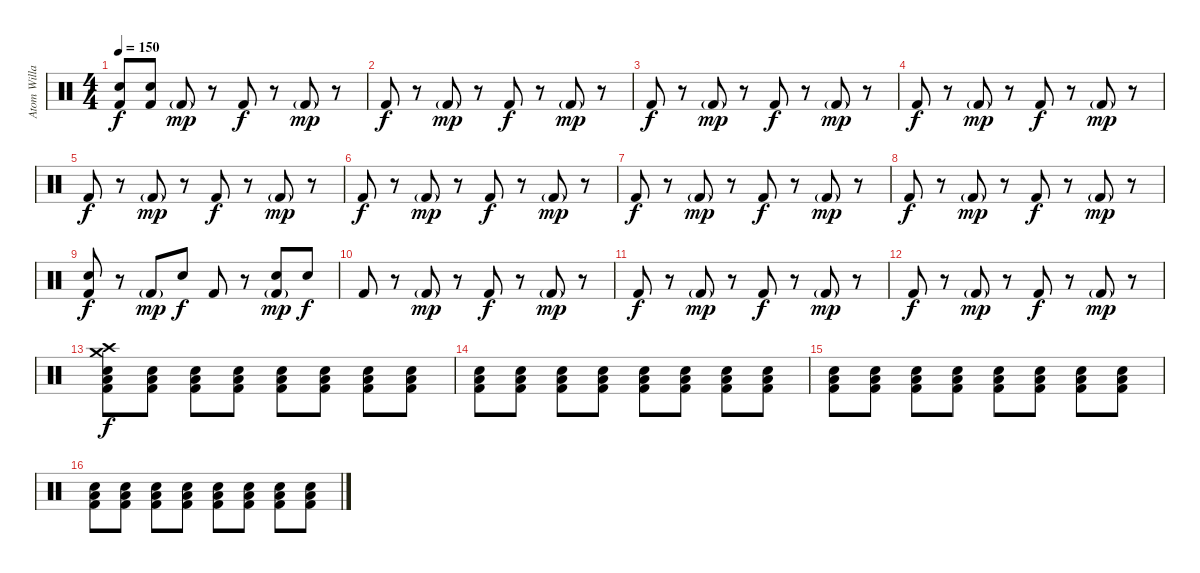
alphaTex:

\track ("Atom Willard - Drums" "Atom Willa") {instrument percussion}
\staff {score}
\articulation defaults
\ts (4 4)
\tempo 150
\clef neutral
\ks c
("Electric Snare (hit)" "Kick (hit) 2").8{dy f} ("Electric Snare (hit)" "Kick (hit) 2").8 "Kick (hit) 2"{g}.8{dy mp} r.8 "Kick (hit) 2".8{dy f} r.8 "Kick (hit) 2"{g}.8{dy mp} r.8 |
"Kick (hit) 2".8{dy f} r.8 "Kick (hit) 2"{g}.8{dy mp} r.8 "Kick (hit) 2".8{dy f} r.8 "Kick (hit) 2"{g}.8{dy mp} r.8 |
"Kick (hit) 2".8{dy f} r.8 "Kick (hit) 2"{g}.8{dy mp} r.8 "Kick (hit) 2".8{dy f} r.8 "Kick (hit) 2"{g}.8{dy mp} r.8 |
"Kick (hit) 2".8{dy f} r.8 "Kick (hit) 2"{g}.8{dy mp} r.8 "Kick (hit) 2".8{dy f} r.8 "Kick (hit) 2"{g}.8{dy mp} r.8 |
"Kick (hit) 2".8{dy f} r.8 "Kick (hit) 2"{g}.8{dy mp} r.8 "Kick (hit) 2".8{dy f} r.8 "Kick (hit) 2"{g}.8{dy mp} r.8 |
"Kick (hit) 2".8{dy f} r.8 "Kick (hit) 2"{g}.8{dy mp} r.8 "Kick (hit) 2".8{dy f} r.8 "Kick (hit) 2"{g}.8{dy mp} r.8 |
"Kick (hit) 2".8{dy f} r.8 "Kick (hit) 2"{g}.8{dy mp} r.8 "Kick (hit) 2".8{dy f} r.8 "Kick (hit) 2"{g}.8{dy mp} r.8 |
"Kick (hit) 2".8{dy f} r.8 "Kick (hit) 2"{g}.8{dy mp} r.8 "Kick (hit) 2".8{dy f} r.8 "Kick (hit) 2"{g}.8{dy mp} r.8 |
("Electric Snare (hit)" "Kick (hit) 2").8{dy f} r.8 "Kick (hit) 2"{g}.8{dy mp} "Electric Snare (hit)".8{dy f} "Kick (hit) 2".8 r.8 ("Electric Snare (hit)" "Kick (hit) 2"{g}).8{dy mp} "Electric Snare (hit)".8{dy f} |
"Kick (hit) 2".8 r.8 "Kick (hit) 2"{g}.8{dy mp} r.8 "Kick (hit) 2".8{dy f} r.8 "Kick (hit) 2"{g}.8{dy mp} r.8 |
"Kick (hit) 2".8{dy f} r.8 "Kick (hit) 2"{g}.8{dy mp} r.8 "Kick (hit) 2".8{dy f} r.8 "Kick (hit) 2"{g}.8{dy mp} r.8 |
"Kick (hit) 2".8{dy f} r.8 "Kick (hit) 2"{g}.8{dy mp} r.8 "Kick (hit) 2".8{dy f} r.8 "Kick (hit) 2"{g}.8{dy mp} r.8 |
("Crash medium (hit)" "Crash high (hit)" "Low Tom (hit)" "Electric Snare (hit)" "Kick (hit) 2").8{dy f} ("Low Tom (hit)" "Electric Snare (hit)" "Kick (hit) 2").8 ("Low Tom (hit)" "Electric Snare (hit)" "Kick (hit) 2").8 ("Low Tom (hit)" "Electric Snare (hit)" "Kick (hit) 2").8 ("Low Tom (hit)" "Electric Snare (hit)" "Kick (hit) 2").8 ("Low Tom (hit)" "Electric Snare (hit)" "Kick (hit) 2").8 ("Low Tom (hit)" "Electric Snare (hit)" "Kick (hit) 2").8 ("Low Tom (hit)" "Electric Snare (hit)" "Kick (hit) 2").8 |
("Low Tom (hit)" "Electric Snare (hit)" "Kick (hit) 2").8 ("Low Tom (hit)" "Electric Snare (hit)" "Kick (hit) 2").8 ("Low Tom (hit)" "Electric Snare (hit)" "Kick (hit) 2").8 ("Low Tom (hit)" "Electric Snare (hit)" "Kick (hit) 2").8 ("Low Tom (hit)" "Electric Snare (hit)" "Kick (hit) 2").8 ("Low Tom (hit)" "Electric Snare (hit)" "Kick (hit) 2").8 ("Low Tom (hit)" "Electric Snare (hit)" "Kick (hit) 2").8 ("Low Tom (hit)" "Electric Snare (hit)" "Kick (hit) 2").8 |
("Low Tom (hit)" "Electric Snare (hit)" "Kick (hit) 2").8 ("Low Tom (hit)" "Electric Snare (hit)" "Kick (hit) 2").8 ("Low Tom (hit)" "Electric Snare (hit)" "Kick (hit) 2").8 ("Low Tom (hit)" "Electric Snare (hit)" "Kick (hit) 2").8 ("Low Tom (hit)" "Electric Snare (hit)" "Kick (hit) 2").8 ("Low Tom (hit)" "Electric Snare (hit)" "Kick (hit) 2").8 ("Low Tom (hit)" "Electric Snare (hit)" "Kick (hit) 2").8 ("Low Tom (hit)" "Electric Snare (hit)" "Kick (hit) 2").8 |
("Low Tom (hit)" "Electric Snare (hit)" "Kick (hit) 2").8 ("Low Tom (hit)" "Electric Snare (hit)" "Kick (hit) 2").8 ("Low Tom (hit)" "Electric Snare (hit)" "Kick (hit) 2").8 ("Low Tom (hit)" "Electric Snare (hit)" "Kick (hit) 2").8 ("Low Tom (hit)" "Electric Snare (hit)" "Kick (hit) 2").8 ("Low Tom (hit)" "Electric Snare (hit)" "Kick (hit) 2").8 ("Low Tom (hit)" "Electric Snare (hit)" "Kick (hit) 2").8 ("Low Tom (hit)" "Electric Snare (hit)" "Kick (hit) 2").8
